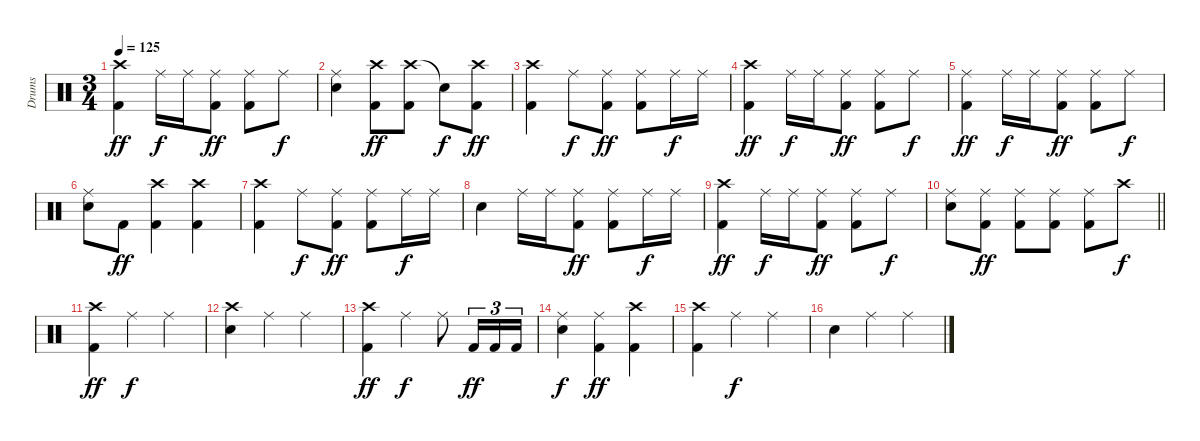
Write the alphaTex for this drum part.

\track ("Drums" "Drums") {instrument percussion}
\staff {score}
\articulation defaults
\ts (3 4)
\tempo 125
\clef neutral
\ks c
("Crash high (hit)" "Kick (hit) 2").4{dy ff} "Ride (middle)".16{dy f} "Ride (middle)".16 ("Ride (middle)" "Kick (hit) 2").8{dy ff} ("Ride (middle)" "Kick (hit) 2").8 "Ride (middle)".8{dy f} |
("Ride (middle)" "Snare (hit) 2").4 ("Crash high (hit)" "Kick (hit) 2").8{dy ff} ("Crash high (hit)" "Kick (hit) 2").8 "Snare (hit)"{t}.8{dy f} ("Crash high (hit)" "Kick (hit) 2").8{dy ff} |
("Crash high (hit)" "Kick (hit) 2").4 "Ride (middle)".8{dy f} ("Ride (middle)" "Kick (hit) 2").8{dy ff} ("Ride (middle)" "Kick (hit) 2").8 "Ride (middle)".16{dy f} "Ride (middle)".16 |
("Crash high (hit)" "Kick (hit) 2").4{dy ff} "Ride (middle)".16{dy f} "Ride (middle)".16 ("Ride (middle)" "Kick (hit) 2").8{dy ff} ("Ride (middle)" "Kick (hit) 2").8 "Ride (middle)".8{dy f} |
("Ride (middle)" "Kick (hit) 2").4{dy ff} "Ride (middle)".16{dy f} "Ride (middle)".16 ("Ride (middle)" "Kick (hit) 2").8{dy ff} ("Ride (middle)" "Kick (hit) 2").8 "Ride (middle)".8{dy f} |
("Ride (middle)" "Snare (hit) 2").8 "Kick (hit) 2".8{dy ff} ("Crash high (hit)" "Kick (hit) 2").4 ("Crash high (hit)" "Kick (hit) 2").4 |
("Crash high (hit)" "Kick (hit) 2").4 "Ride (middle)".8{dy f} ("Ride (middle)" "Kick (hit) 2").8{dy ff} ("Ride (middle)" "Kick (hit) 2").8 "Ride (middle)".16{dy f} "Ride (middle)".16 |
"Snare (hit) 2".4 "Ride (middle)".16 "Ride (middle)".16 ("Ride (middle)" "Kick (hit) 2").8{dy ff} ("Ride (middle)" "Kick (hit) 2").8 "Ride (middle)".16{dy f} "Ride (middle)".16 |
("Crash high (hit)" "Kick (hit) 2").4{dy ff} "Ride (middle)".16{dy f} "Ride (middle)".16 ("Ride (middle)" "Kick (hit) 2").8{dy ff} ("Ride (middle)" "Kick (hit) 2").8 "Ride (middle)".8{dy f} |
\barLineRight lightlight
("Ride (middle)" "Snare (hit) 2").8 ("Ride (middle)" "Kick (hit) 2").8{dy ff} ("Ride (middle)" "Kick (hit) 2").8 ("Ride (middle)" "Kick (hit) 2").8 ("Ride (middle)" "Kick (hit) 2").8 "Crash high (hit)".8{dy f} |
\section ("" "")
("Crash high (hit)" "Kick (hit) 2").4{dy ff} "Ride (middle)".4{dy f} "Ride (middle)".4 |
("Crash high (hit)" "Snare (hit) 2").4 "Ride (middle)".4 "Ride (middle)".4 |
("Crash high (hit)" "Kick (hit) 2").4{dy ff} "Ride (middle)".4{dy f} "Ride (middle)".8 "Kick (hit) 2".16{tu (3 2) dy ff} "Kick (hit) 2".16{tu (3 2)} "Kick (hit) 2".16{tu (3 2)} |
("Ride (middle)" "Snare (hit) 2").4{dy f} ("Ride (middle)" "Kick (hit) 2").4{dy ff} ("Crash high (hit)" "Kick (hit) 2").4 |
("Crash high (hit)" "Kick (hit) 2").4 "Ride (middle)".4{dy f} "Ride (middle)".4 |
"Snare (hit) 2".4 "Ride (middle)".4 "Ride (middle)".4
